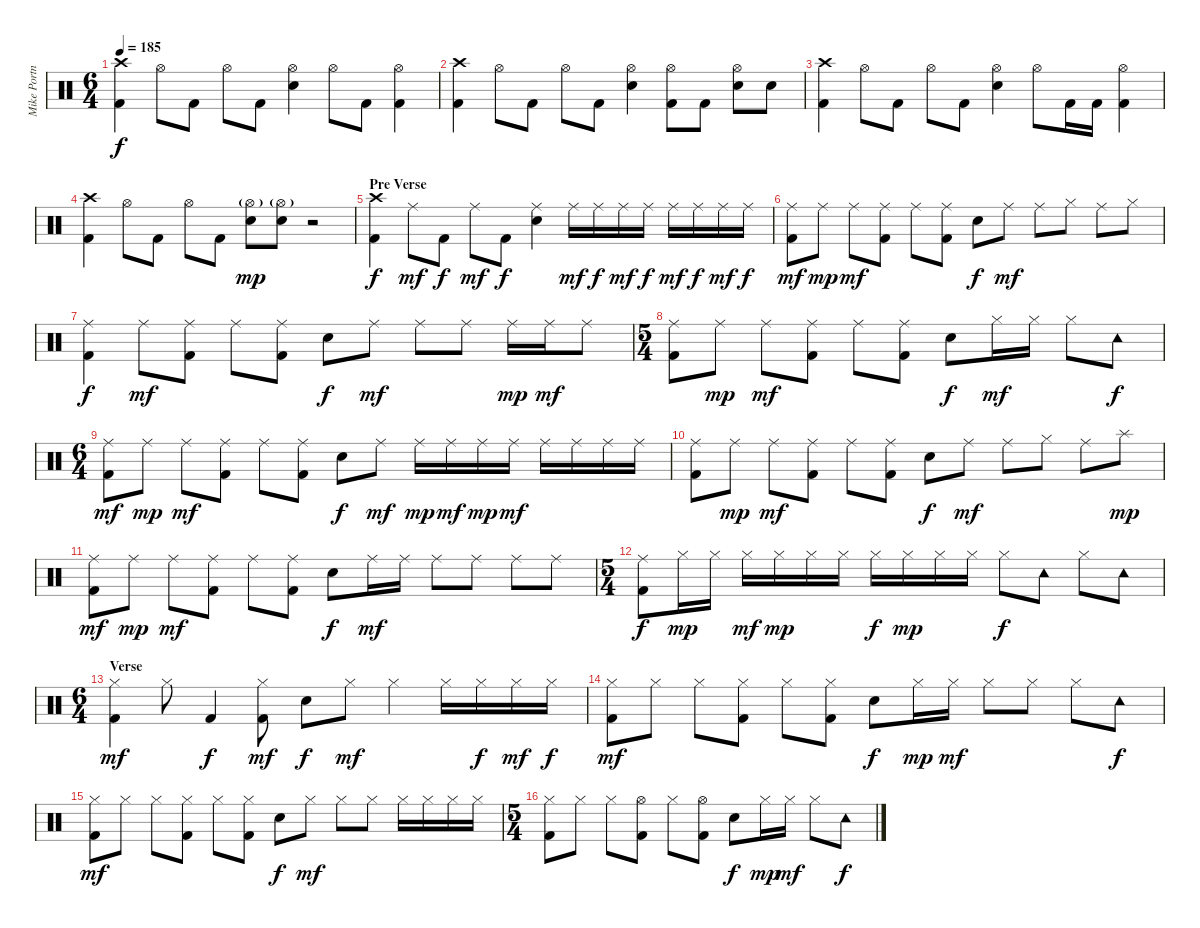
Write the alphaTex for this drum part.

\track ("Mike Portnoy" "Mike Portn") {instrument percussion}
\staff {score}
\articulation defaults
\ts (6 4)
\tempo 185
\clef neutral
\ks c
("Crash high (hit)" "Kick (hit) 2").4{dy f} "Hi-Hat (open)".8 "Kick (hit) 2".8 "Hi-Hat (open)".8 "Kick (hit) 2".8 ("Snare (hit) 2" "Hi-Hat (open)").4 "Hi-Hat (open)".8 "Kick (hit) 2".8 ("Hi-Hat (open)" "Kick (hit) 2").4 |
("Crash high (hit)" "Kick (hit) 2").4 "Hi-Hat (open)".8 "Kick (hit) 2".8 "Hi-Hat (open)".8 "Kick (hit) 2".8 ("Snare (hit) 2" "Hi-Hat (open)").4 ("Hi-Hat (open)" "Kick (hit) 2").8 "Kick (hit) 2".8 ("Snare (hit) 2" "Hi-Hat (open)").8 "Snare (hit) 2".8 |
("Crash high (hit)" "Kick (hit) 2").4 "Hi-Hat (open)".8 "Kick (hit) 2".8 "Hi-Hat (open)".8 "Kick (hit) 2".8 ("Snare (hit) 2" "Hi-Hat (open)").4 "Hi-Hat (open)".8 "Kick (hit) 2".16 "Kick (hit) 2".16 ("Hi-Hat (open)" "Kick (hit) 2").4 |
("Crash high (hit)" "Kick (hit) 2").4 "Hi-Hat (open)".8 "Kick (hit) 2".8 "Hi-Hat (open)".8 "Kick (hit) 2".8 ("Snare (hit) 2" "Hi-Hat (open)"{g}).8{dy mp} ("Snare (hit) 2" "Hi-Hat (open)"{g}).8 r.2 |
\section ("" "Pre Verse ")
("Crash high (hit)" "Kick (hit) 2").4{dy f} "Ride (middle)".8{dy mf} "Kick (hit) 2".8{dy f} "Ride (middle)".8{dy mf} "Kick (hit) 2".8{dy f} ("Snare (hit) 2" "Ride (middle)").4 "Ride (middle)".16{dy mf} "Ride (middle)".16{dy f} "Ride (middle)".16{dy mf} "Ride (middle)".16{dy f} "Ride (middle)".16{dy mf} "Ride (middle)".16{dy f} "Ride (middle)".16{dy mf} "Ride (middle)".16{dy f} |
("Ride (middle)" "Kick (hit) 2").8{dy mf} "Ride (middle)".8{dy mp} "Ride (middle)".8{dy mf} ("Ride (middle)" "Kick (hit) 2").8 "Ride (middle)".8 ("Ride (middle)" "Kick (hit) 2").8 "Snare (hit) 2".8{dy f} "Ride (middle)".8{dy mf} "Ride (middle)".8 "Hi-Hat (closed)".8 "Ride (middle)".8 "Hi-Hat (closed)".8 |
("Ride (middle)" "Kick (hit) 2").4{dy f} "Ride (middle)".8{dy mf} ("Ride (middle)" "Kick (hit) 2").8 "Ride (middle)".8 ("Ride (middle)" "Kick (hit) 2").8 "Snare (hit) 2".8{dy f} "Ride (middle)".8{dy mf} "Ride (middle)".8 "Ride (middle)".8 "Ride (middle)".16{dy mp} "Ride (middle)".16{dy mf} "Ride (middle)".8 |
\ts (5 4)
("Ride (middle)" "Kick (hit) 2").8 "Ride (middle)".8{dy mp} "Ride (middle)".8{dy mf} ("Ride (middle)" "Kick (hit) 2").8 "Ride (middle)".8 ("Ride (middle)" "Kick (hit) 2").8 "Snare (hit) 2".8{dy f} "Hi-Hat (closed)".16{dy mf} "Hi-Hat (closed)".16 "Hi-Hat (closed)".8 "Tambourine (hit)".8{dy f} |
\ts (6 4)
("Ride (middle)" "Kick (hit) 2").8{dy mf} "Ride (middle)".8{dy mp} "Ride (middle)".8{dy mf} ("Ride (middle)" "Kick (hit) 2").8 "Ride (middle)".8 ("Ride (middle)" "Kick (hit) 2").8 "Snare (hit) 2".8{dy f} "Ride (middle)".8{dy mf} "Ride (middle)".16{dy mp} "Ride (middle)".16{dy mf} "Ride (middle)".16{dy mp} "Ride (middle)".16{dy mf} "Ride (middle)".16 "Ride (middle)".16 "Ride (middle)".16 "Ride (middle)".16 |
("Ride (middle)" "Kick (hit) 2").8 "Ride (middle)".8{dy mp} "Ride (middle)".8{dy mf} ("Ride (middle)" "Kick (hit) 2").8 "Ride (middle)".8 ("Ride (middle)" "Kick (hit) 2").8 "Snare (hit) 2".8{dy f} "Ride (middle)".8{dy mf} "Ride (middle)".8 "Hi-Hat (closed)".8 "Ride (middle)".8 "Splash (hit)".8{dy mp} |
("Ride (middle)" "Kick (hit) 2").8{dy mf} "Ride (middle)".8{dy mp} "Ride (middle)".8{dy mf} ("Ride (middle)" "Kick (hit) 2").8 "Ride (middle)".8 ("Ride (middle)" "Kick (hit) 2").8 "Snare (hit) 2".8{dy f} "Ride (middle)".16{dy mf} "Ride (middle)".16 "Ride (middle)".8 "Ride (middle)".8 "Ride (middle)".8 "Ride (middle)".8 |
\ts (5 4)
("Ride (middle)" "Kick (hit) 2").8{dy f} "Hi-Hat (closed)".16{dy mp} "Hi-Hat (closed)".16 "Hi-Hat (closed)".16{dy mf} "Hi-Hat (closed)".16{dy mp} "Hi-Hat (closed)".16 "Hi-Hat (closed)".16 "Hi-Hat (closed)".16{dy f} "Hi-Hat (closed)".16{dy mp} "Hi-Hat (closed)".16 "Hi-Hat (closed)".16 "Hi-Hat (closed)".8{dy f} "Tambourine (hit)".8 "Hi-Hat (closed)".8 "Tambourine (hit)".8 |
\ts (6 4)
\section ("" "Verse ")
("Hi-Hat (closed)" "Kick (hit) 2").4{dy mf} "Hi-Hat (closed)".8 "Kick (hit) 2".4{dy f} ("Hi-Hat (closed)" "Kick (hit) 2").8{dy mf} "Snare (hit) 2".8{dy f} "Hi-Hat (closed)".8{dy mf} "Hi-Hat (closed)".4 "Hi-Hat (closed)".16 "Hi-Hat (closed)".16{dy f} "Hi-Hat (closed)".16{dy mf} "Hi-Hat (closed)".16{dy f} |
("Hi-Hat (closed)" "Kick (hit) 2").8{dy mf} "Hi-Hat (closed)".8 "Hi-Hat (closed)".8 ("Hi-Hat (closed)" "Kick (hit) 2").8 "Hi-Hat (closed)".8 ("Hi-Hat (closed)" "Kick (hit) 2").8 "Snare (hit) 2".8{dy f} "Hi-Hat (closed)".16{dy mp} "Hi-Hat (closed)".16{dy mf} "Hi-Hat (closed)".8 "Hi-Hat (closed)".8 "Hi-Hat (closed)".8 "Tambourine (hit)".8{dy f} |
("Hi-Hat (closed)" "Kick (hit) 2").8{dy mf} "Hi-Hat (closed)".8 "Hi-Hat (closed)".8 ("Hi-Hat (closed)" "Kick (hit) 2").8 "Hi-Hat (closed)".8 ("Hi-Hat (closed)" "Kick (hit) 2").8 "Snare (hit) 2".8{dy f} "Hi-Hat (closed)".8{dy mf} "Hi-Hat (closed)".8 "Hi-Hat (closed)".8 "Hi-Hat (closed)".16 "Hi-Hat (closed)".16 "Hi-Hat (closed)".16 "Hi-Hat (closed)".16 |
\ts (5 4)
("Hi-Hat (closed)" "Kick (hit) 2").8 "Hi-Hat (closed)".8 "Hi-Hat (closed)".8 ("Hi-Hat (open)" "Kick (hit) 2").8 "Hi-Hat (closed)".8 ("Hi-Hat (open)" "Kick (hit) 2").8 "Snare (hit) 2".8{dy f} "Hi-Hat (closed)".16{dy mp} "Hi-Hat (closed)".16{dy mf} "Hi-Hat (closed)".8 "Tambourine (hit)".8{dy f}
